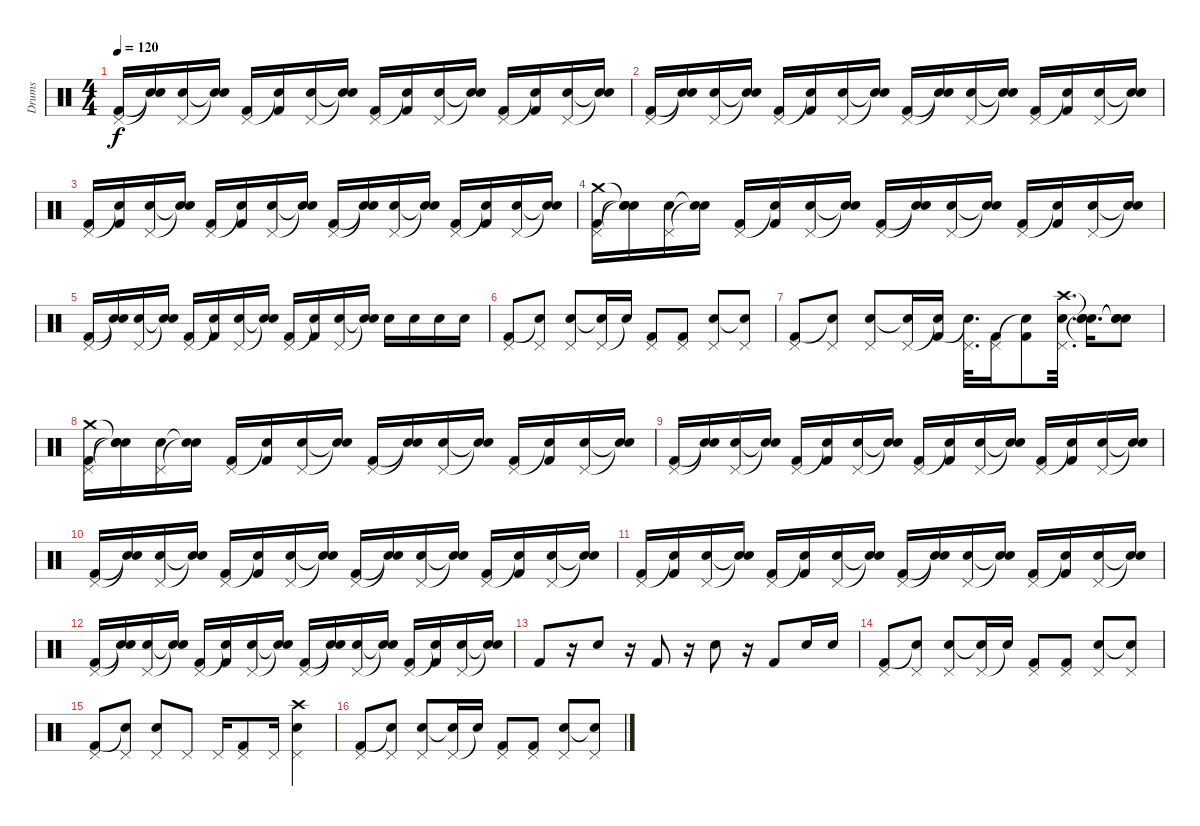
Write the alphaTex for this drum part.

\track ("Drums" "Drums") {instrument percussion}
\staff {score}
\articulation defaults
\ts (4 4)
\tempo 120
\clef neutral
\ks c
("Pedal Hi-Hat (hit)" "Kick (hit) 2").16{dy f} ("Snare (hit)"{t} "Snare (hit)"{t}).16 ("Pedal Hi-Hat (hit)" "Snare (hit) 2").16 ("Snare (hit)"{t} "Snare (hit)"{t}).16 ("Pedal Hi-Hat (hit)" "Kick (hit) 2").16 ("Snare (hit)"{t} "Kick (hit) 2").16 ("Pedal Hi-Hat (hit)" "Snare (hit) 2").16 ("Snare (hit)"{t} "Snare (hit)"{t}).16 ("Pedal Hi-Hat (hit)" "Kick (hit) 2").16 ("Snare (hit)"{t} "Kick (hit) 2").16 ("Pedal Hi-Hat (hit)" "Snare (hit) 2").16 ("Snare (hit)"{t} "Snare (hit)"{t}).16 ("Pedal Hi-Hat (hit)" "Kick (hit) 2").16 ("Snare (hit)"{t} "Kick (hit) 2").16 ("Pedal Hi-Hat (hit)" "Snare (hit) 2").16 ("Snare (hit)"{t} "Snare (hit)"{t}).16 |
("Pedal Hi-Hat (hit)" "Kick (hit) 2").16 ("Snare (hit)"{t} "Snare (hit)"{t}).16 ("Pedal Hi-Hat (hit)" "Snare (hit) 2").16 ("Snare (hit)"{t} "Snare (hit)"{t}).16 ("Pedal Hi-Hat (hit)" "Kick (hit) 2").16 ("Snare (hit)"{t} "Kick (hit) 2").16 ("Pedal Hi-Hat (hit)" "Snare (hit) 2").16 ("Snare (hit)"{t} "Snare (hit)"{t}).16 ("Pedal Hi-Hat (hit)" "Kick (hit) 2").16 ("Snare (hit)"{t} "Snare (hit)"{t}).16 ("Pedal Hi-Hat (hit)" "Snare (hit) 2").16 ("Snare (hit)"{t} "Snare (hit)"{t}).16 ("Pedal Hi-Hat (hit)" "Kick (hit) 2").16 ("Snare (hit)"{t} "Kick (hit) 2").16 ("Pedal Hi-Hat (hit)" "Snare (hit) 2").16 ("Snare (hit)"{t} "Snare (hit)"{t}).16 |
("Pedal Hi-Hat (hit)" "Kick (hit) 2").16 ("Snare (hit)"{t} "Kick (hit) 2").16 ("Pedal Hi-Hat (hit)" "Snare (hit) 2").16 ("Snare (hit)"{t} "Snare (hit)"{t}).16 ("Pedal Hi-Hat (hit)" "Kick (hit) 2").16 ("Snare (hit)"{t} "Kick (hit) 2").16 ("Pedal Hi-Hat (hit)" "Snare (hit) 2").16 ("Snare (hit)"{t} "Snare (hit)"{t}).16 ("Pedal Hi-Hat (hit)" "Kick (hit) 2").16 ("Snare (hit)"{t} "Snare (hit)"{t}).16 ("Pedal Hi-Hat (hit)" "Snare (hit) 2").16 ("Snare (hit)"{t} "Snare (hit)"{t}).16 ("Pedal Hi-Hat (hit)" "Kick (hit) 2").16 ("Snare (hit)"{t} "Kick (hit) 2").16 ("Pedal Hi-Hat (hit)" "Snare (hit) 2").16 ("Snare (hit)"{t} "Snare (hit)"{t}).16 |
("Pedal Hi-Hat (hit)" "Crash medium (hit)" "Kick (hit) 2").16 ("Snare (hit)"{t} "Snare (hit)"{t} "Snare (hit)"{t}).16 ("Pedal Hi-Hat (hit)" "Snare (hit) 2").16 ("Snare (hit)"{t} "Snare (hit)"{t}).16 ("Pedal Hi-Hat (hit)" "Kick (hit) 2").16 ("Snare (hit)"{t} "Kick (hit) 2").16 ("Pedal Hi-Hat (hit)" "Snare (hit) 2").16 ("Snare (hit)"{t} "Snare (hit)"{t}).16 ("Pedal Hi-Hat (hit)" "Kick (hit) 2").16 ("Snare (hit)"{t} "Snare (hit)"{t}).16 ("Pedal Hi-Hat (hit)" "Snare (hit) 2").16 ("Snare (hit)"{t} "Snare (hit)"{t}).16 ("Pedal Hi-Hat (hit)" "Kick (hit) 2").16 ("Snare (hit)"{t} "Kick (hit) 2").16 ("Pedal Hi-Hat (hit)" "Snare (hit) 2").16 ("Snare (hit)"{t} "Snare (hit)"{t}).16 |
("Pedal Hi-Hat (hit)" "Kick (hit) 2").16 ("Snare (hit)"{t} "Snare (hit)"{t}).16 ("Pedal Hi-Hat (hit)" "Snare (hit) 2").16 ("Snare (hit)"{t} "Snare (hit)"{t}).16 ("Pedal Hi-Hat (hit)" "Kick (hit) 2").16 ("Snare (hit)"{t} "Kick (hit) 2").16 ("Pedal Hi-Hat (hit)" "Snare (hit) 2").16 ("Snare (hit)"{t} "Snare (hit)"{t}).16 ("Pedal Hi-Hat (hit)" "Kick (hit) 2").16 ("Snare (hit)"{t} "Kick (hit) 2").16 ("Pedal Hi-Hat (hit)" "Snare (hit) 2").16 ("Snare (hit)"{t} "Snare (hit)"{t}).16 "Snare (hit) 2".16 "Snare (hit) 2".16 "Snare (hit) 2".16 "Snare (hit) 2".16 |
("Pedal Hi-Hat (hit)" "Kick (hit) 2").8 ("Pedal Hi-Hat (hit)" "Snare (hit)"{t}).8 ("Pedal Hi-Hat (hit)" "Snare (hit) 2").8 ("Pedal Hi-Hat (hit)" "Snare (hit)"{t}).16 "Snare (hit)"{t}.16 ("Pedal Hi-Hat (hit)" "Kick (hit) 2").8 ("Pedal Hi-Hat (hit)" "Kick (hit) 2").8 ("Pedal Hi-Hat (hit)" "Snare (hit) 2").8 ("Pedal Hi-Hat (hit)" "Snare (hit)"{t}).8 |
("Pedal Hi-Hat (hit)" "Kick (hit) 2").8 ("Pedal Hi-Hat (hit)" "Snare (hit)"{t}).8 ("Pedal Hi-Hat (hit)" "Snare (hit) 2").8 ("Pedal Hi-Hat (hit)" "Snare (hit)"{t}).16 ("Snare (hit)"{t} "Kick (hit) 2").16 ("Pedal Hi-Hat (hit)" "Snare (hit)"{t}).32{d} ("Pedal Hi-Hat (hit)" "Kick (hit) 2").16 ("Snare (hit)"{t} "Kick (hit) 2").8 ("Pedal Hi-Hat (hit)" "Crash high (hit)" "Snare (hit) 2").32{d} ("Snare (hit)"{t} "Snare (hit)"{t} "Snare (hit)"{t}).16{d} ("Snare (hit)"{t} "Snare (hit)"{t} "Snare (hit)"{t}).8 |
("Pedal Hi-Hat (hit)" "Crash medium (hit)" "Kick (hit) 2").16 ("Snare (hit)"{t} "Snare (hit)"{t} "Snare (hit)"{t}).16 ("Pedal Hi-Hat (hit)" "Snare (hit) 2").16 ("Snare (hit)"{t} "Snare (hit)"{t}).16 ("Pedal Hi-Hat (hit)" "Kick (hit) 2").16 ("Snare (hit)"{t} "Kick (hit) 2").16 ("Pedal Hi-Hat (hit)" "Snare (hit) 2").16 ("Snare (hit)"{t} "Snare (hit)"{t}).16 ("Pedal Hi-Hat (hit)" "Kick (hit) 2").16 ("Snare (hit)"{t} "Snare (hit)"{t}).16 ("Pedal Hi-Hat (hit)" "Snare (hit) 2").16 ("Snare (hit)"{t} "Snare (hit)"{t}).16 ("Pedal Hi-Hat (hit)" "Kick (hit) 2").16 ("Snare (hit)"{t} "Kick (hit) 2").16 ("Pedal Hi-Hat (hit)" "Snare (hit) 2").16 ("Snare (hit)"{t} "Snare (hit)"{t}).16 |
("Pedal Hi-Hat (hit)" "Kick (hit) 2").16 ("Snare (hit)"{t} "Snare (hit)"{t}).16 ("Pedal Hi-Hat (hit)" "Snare (hit) 2").16 ("Snare (hit)"{t} "Snare (hit)"{t}).16 ("Pedal Hi-Hat (hit)" "Kick (hit) 2").16 ("Snare (hit)"{t} "Kick (hit) 2").16 ("Pedal Hi-Hat (hit)" "Snare (hit) 2").16 ("Snare (hit)"{t} "Snare (hit)"{t}).16 ("Pedal Hi-Hat (hit)" "Kick (hit) 2").16 ("Snare (hit)"{t} "Kick (hit) 2").16 ("Pedal Hi-Hat (hit)" "Snare (hit) 2").16 ("Snare (hit)"{t} "Snare (hit)"{t}).16 ("Pedal Hi-Hat (hit)" "Kick (hit) 2").16 ("Snare (hit)"{t} "Kick (hit) 2").16 ("Pedal Hi-Hat (hit)" "Snare (hit) 2").16 ("Snare (hit)"{t} "Snare (hit)"{t}).16 |
("Pedal Hi-Hat (hit)" "Kick (hit) 2").16 ("Snare (hit)"{t} "Snare (hit)"{t}).16 ("Pedal Hi-Hat (hit)" "Snare (hit) 2").16 ("Snare (hit)"{t} "Snare (hit)"{t}).16 ("Pedal Hi-Hat (hit)" "Kick (hit) 2").16 ("Snare (hit)"{t} "Kick (hit) 2").16 ("Pedal Hi-Hat (hit)" "Snare (hit) 2").16 ("Snare (hit)"{t} "Snare (hit)"{t}).16 ("Pedal Hi-Hat (hit)" "Kick (hit) 2").16 ("Snare (hit)"{t} "Snare (hit)"{t}).16 ("Pedal Hi-Hat (hit)" "Snare (hit) 2").16 ("Snare (hit)"{t} "Snare (hit)"{t}).16 ("Pedal Hi-Hat (hit)" "Kick (hit) 2").16 ("Snare (hit)"{t} "Kick (hit) 2").16 ("Pedal Hi-Hat (hit)" "Snare (hit) 2").16 ("Snare (hit)"{t} "Snare (hit)"{t}).16 |
("Pedal Hi-Hat (hit)" "Kick (hit) 2").16 ("Snare (hit)"{t} "Kick (hit) 2").16 ("Pedal Hi-Hat (hit)" "Snare (hit) 2").16 ("Snare (hit)"{t} "Snare (hit)"{t}).16 ("Pedal Hi-Hat (hit)" "Kick (hit) 2").16 ("Snare (hit)"{t} "Kick (hit) 2").16 ("Pedal Hi-Hat (hit)" "Snare (hit) 2").16 ("Snare (hit)"{t} "Snare (hit)"{t}).16 ("Pedal Hi-Hat (hit)" "Kick (hit) 2").16 ("Snare (hit)"{t} "Snare (hit)"{t}).16 ("Pedal Hi-Hat (hit)" "Snare (hit) 2").16 ("Snare (hit)"{t} "Snare (hit)"{t}).16 ("Pedal Hi-Hat (hit)" "Kick (hit) 2").16 ("Snare (hit)"{t} "Kick (hit) 2").16 ("Pedal Hi-Hat (hit)" "Snare (hit) 2").16 ("Snare (hit)"{t} "Snare (hit)"{t}).16 |
("Pedal Hi-Hat (hit)" "Kick (hit) 2").16 ("Snare (hit)"{t} "Snare (hit)"{t}).16 ("Pedal Hi-Hat (hit)" "Snare (hit) 2").16 ("Snare (hit)"{t} "Snare (hit)"{t}).16 ("Pedal Hi-Hat (hit)" "Kick (hit) 2").16 ("Snare (hit)"{t} "Kick (hit) 2").16 ("Pedal Hi-Hat (hit)" "Snare (hit) 2").16 ("Snare (hit)"{t} "Snare (hit)"{t}).16 ("Pedal Hi-Hat (hit)" "Kick (hit) 2").16 ("Snare (hit)"{t} "Snare (hit)"{t}).16 ("Pedal Hi-Hat (hit)" "Snare (hit) 2").16 ("Snare (hit)"{t} "Snare (hit)"{t}).16 ("Pedal Hi-Hat (hit)" "Kick (hit) 2").16 ("Snare (hit)"{t} "Kick (hit) 2").16 ("Pedal Hi-Hat (hit)" "Snare (hit) 2").16 ("Snare (hit)"{t} "Snare (hit)"{t}).16 |
"Kick (hit) 2".8 r.16 "Snare (hit) 2".8 r.16 "Kick (hit) 2".8 r.16 "Snare (hit) 2".8 r.16 "Kick (hit) 2".8 "Snare (hit) 2".16 "Snare (hit) 2".16 |
("Pedal Hi-Hat (hit)" "Kick (hit) 2").8 ("Pedal Hi-Hat (hit)" "Snare (hit)"{t}).8 ("Pedal Hi-Hat (hit)" "Snare (hit) 2").8 ("Pedal Hi-Hat (hit)" "Snare (hit)"{t}).16 "Snare (hit)"{t}.16 ("Pedal Hi-Hat (hit)" "Kick (hit) 2").8 ("Pedal Hi-Hat (hit)" "Kick (hit) 2").8 ("Pedal Hi-Hat (hit)" "Snare (hit) 2").8 ("Pedal Hi-Hat (hit)" "Snare (hit)"{t}).8 |
("Pedal Hi-Hat (hit)" "Kick (hit) 2").8 ("Pedal Hi-Hat (hit)" "Snare (hit)"{t}).8 ("Pedal Hi-Hat (hit)" "Snare (hit) 2").8 "Pedal Hi-Hat (hit)".8 "Pedal Hi-Hat (hit)".16 ("Pedal Hi-Hat (hit)" "Kick (hit) 2").8 "Pedal Hi-Hat (hit)".16 ("Pedal Hi-Hat (hit)" "Crash high (hit)" "Snare (hit) 2").4 |
("Pedal Hi-Hat (hit)" "Kick (hit) 2").8 ("Pedal Hi-Hat (hit)" "Snare (hit)"{t}).8 ("Pedal Hi-Hat (hit)" "Snare (hit) 2").8 ("Pedal Hi-Hat (hit)" "Snare (hit)"{t}).16 "Snare (hit)"{t}.16 ("Pedal Hi-Hat (hit)" "Kick (hit) 2").8 ("Pedal Hi-Hat (hit)" "Kick (hit) 2").8 ("Pedal Hi-Hat (hit)" "Snare (hit) 2").8 ("Pedal Hi-Hat (hit)" "Snare (hit)"{t}).8
